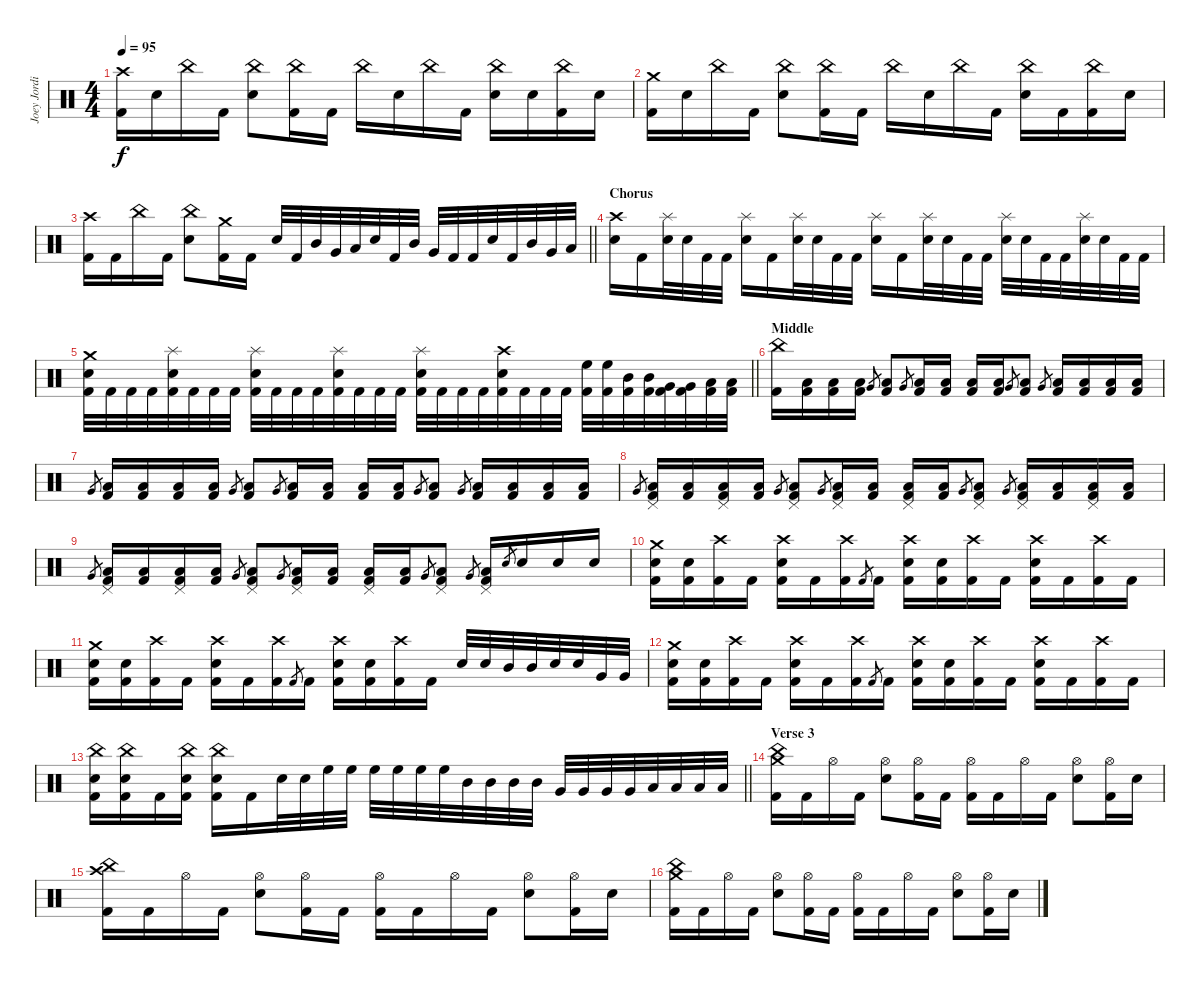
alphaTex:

\track ("Joey Jordison" "Joey Jordi") {instrument percussion}
\staff {score}
\articulation defaults
\ts (4 4)
\tempo 95
\clef neutral
\ks c
("Crash high (hit)" "Kick (hit) 2").16{dy f} "Electric Snare (hit)".16 "China (hit)".16 "Kick (hit) 2".16 ("China (hit)" "Electric Snare (hit)").8 ("China (hit)" "Kick (hit) 2").16 "Kick (hit) 2".16 "China (hit)".16 "Electric Snare (hit)".16 "China (hit)".16 "Kick (hit) 2".16 ("China (hit)" "Electric Snare (hit)").16 "Electric Snare (hit)".16 ("China (hit)" "Kick (hit) 2").16 "Electric Snare (hit)".16 |
("Crash medium (hit)" "Kick (hit) 2").16 "Electric Snare (hit)".16 "China (hit)".16 "Kick (hit) 2".16 ("China (hit)" "Electric Snare (hit)").8 ("China (hit)" "Kick (hit) 2").16 "Kick (hit) 2".16 "China (hit)".16 "Electric Snare (hit)".16 "China (hit)".16 "Kick (hit) 2".16 ("China (hit)" "Electric Snare (hit)").16 "Kick (hit) 2".16 ("China (hit)" "Kick (hit) 2").16 "Electric Snare (hit)".16 |
\barLineRight lightlight
("Crash high (hit)" "Kick (hit) 2").16 "Kick (hit) 2".16 "China (hit)".16 "Kick (hit) 2".16 ("China (hit)" "Electric Snare (hit)").8 ("Crash medium (hit)" "Kick (hit) 2").16 "Kick (hit) 2".16 "Electric Snare (hit)".32 "Kick (hit) 2".32 "Mid Tom (hit)".32 "Very Low Tom (hit)".32 "Low Floor Tom (hit)".32 "Electric Snare (hit)".32 "Kick (hit) 2".32 "Mid Tom (hit)".32 "Very Low Tom (hit)".32 "Kick (hit) 2".32 "Kick (hit) 2".32 "Electric Snare (hit)".32 "Kick (hit) 2".32 "Mid Tom (hit)".32 "Very Low Tom (hit)".32 "Low Floor Tom (hit)".32 |
\section ("" "Chorus")
("Crash high (hit)" "Electric Snare (hit)").16 "Kick (hit) 2".16 ("Splash (hit)" "Electric Snare (hit)").32 "Electric Snare (hit)".32 "Kick (hit) 2".32 "Kick (hit) 2".32 ("Splash (hit)" "Electric Snare (hit)").16 "Kick (hit) 2".16 ("Splash (hit)" "Electric Snare (hit)").32 "Electric Snare (hit)".32 "Kick (hit) 2".32 "Kick (hit) 2".32 ("Splash (hit)" "Electric Snare (hit)").16 "Kick (hit) 2".16 ("Splash (hit)" "Electric Snare (hit)").32 "Electric Snare (hit)".32 "Kick (hit) 2".32 "Kick (hit) 2".32 ("Splash (hit)" "Electric Snare (hit)").32 "Electric Snare (hit)".32 "Kick (hit) 2".32 "Kick (hit) 2".32 ("Splash (hit)" "Electric Snare (hit)").32 "Electric Snare (hit)".32 "Kick (hit) 2".32 "Kick (hit) 2".32 |
\barLineRight lightlight
("Crash medium (hit)" "Electric Snare (hit)" "Kick (hit) 2").32 "Kick (hit) 2".32 "Kick (hit) 2".32 "Kick (hit) 2".32 ("Splash (hit)" "Electric Snare (hit)" "Kick (hit) 2").32 "Kick (hit) 2".32 "Kick (hit) 2".32 "Kick (hit) 2".32 ("Splash (hit)" "Electric Snare (hit)" "Kick (hit) 2").32 "Kick (hit) 2".32 "Kick (hit) 2".32 "Kick (hit) 2".32 ("Splash (hit)" "Electric Snare (hit)" "Kick (hit) 2").32 "Kick (hit) 2".32 "Kick (hit) 2".32 "Kick (hit) 2".32 ("Splash (hit)" "Electric Snare (hit)" "Kick (hit) 2").32 "Kick (hit) 2".32 "Kick (hit) 2".32 "Kick (hit) 2".32 ("Crash high (hit)" "Electric Snare (hit)" "Kick (hit) 2").32 "Kick (hit) 2".32 "Kick (hit) 2".32 "Kick (hit) 2".32 ("High Floor Tom (hit)" "Kick (hit) 2").32 ("High Floor Tom (hit)" "Kick (hit) 2").32 ("Mid Tom (hit)" "Kick (hit) 2").32 ("Mid Tom (hit)" "Kick (hit) 2").32 ("Very Low Tom (hit)" "Kick (hit) 2").32 ("Very Low Tom (hit)" "Kick (hit) 2").32 ("Low Floor Tom (hit)" "Kick (hit) 2").32 ("Low Floor Tom (hit)" "Kick (hit) 2").32 |
\section ("" "Middle")
("China (hit)" "Kick (hit) 2").16 ("Low Floor Tom (hit)" "Kick (hit) 2").16 ("Low Floor Tom (hit)" "Kick (hit) 2").16 ("Low Floor Tom (hit)" "Kick (hit) 2").16 "Very Low Tom (hit)".8{gr} ("Low Floor Tom (hit)" "Kick (hit) 2").8 "Very Low Tom (hit)".8{gr} ("Low Floor Tom (hit)" "Kick (hit) 2").16 ("Low Floor Tom (hit)" "Kick (hit) 2").16 ("Low Floor Tom (hit)" "Kick (hit) 2").16 ("Low Floor Tom (hit)" "Kick (hit) 2").16 "Very Low Tom (hit)".8{gr} ("Low Floor Tom (hit)" "Kick (hit) 2").8 "Very Low Tom (hit)".8{gr} ("Low Floor Tom (hit)" "Kick (hit) 2").16 ("Low Floor Tom (hit)" "Kick (hit) 2").16 ("Low Floor Tom (hit)" "Kick (hit) 2").16 ("Low Floor Tom (hit)" "Kick (hit) 2").16 |
"Very Low Tom (hit)".8{gr} ("Low Floor Tom (hit)" "Kick (hit) 2").16 ("Low Floor Tom (hit)" "Kick (hit) 2").16 ("Low Floor Tom (hit)" "Kick (hit) 2").16 ("Low Floor Tom (hit)" "Kick (hit) 2").16 "Very Low Tom (hit)".8{gr} ("Low Floor Tom (hit)" "Kick (hit) 2").8 "Very Low Tom (hit)".8{gr} ("Low Floor Tom (hit)" "Kick (hit) 2").16 ("Low Floor Tom (hit)" "Kick (hit) 2").16 ("Low Floor Tom (hit)" "Kick (hit) 2").16 ("Low Floor Tom (hit)" "Kick (hit) 2").16 "Very Low Tom (hit)".8{gr} ("Low Floor Tom (hit)" "Kick (hit) 2").8 "Very Low Tom (hit)".8{gr} ("Low Floor Tom (hit)" "Kick (hit) 2").16 ("Low Floor Tom (hit)" "Kick (hit) 2").16 ("Low Floor Tom (hit)" "Kick (hit) 2").16 ("Low Floor Tom (hit)" "Kick (hit) 2").16 |
"Very Low Tom (hit)".8{gr} ("Pedal Hi-Hat (hit)" "Low Floor Tom (hit)" "Kick (hit) 2").16 ("Low Floor Tom (hit)" "Kick (hit) 2").16 ("Pedal Hi-Hat (hit)" "Low Floor Tom (hit)" "Kick (hit) 2").16 ("Low Floor Tom (hit)" "Kick (hit) 2").16 "Very Low Tom (hit)".8{gr} ("Pedal Hi-Hat (hit)" "Low Floor Tom (hit)" "Kick (hit) 2").8 "Very Low Tom (hit)".8{gr} ("Pedal Hi-Hat (hit)" "Low Floor Tom (hit)" "Kick (hit) 2").16 ("Low Floor Tom (hit)" "Kick (hit) 2").16 ("Pedal Hi-Hat (hit)" "Low Floor Tom (hit)" "Kick (hit) 2").16 ("Low Floor Tom (hit)" "Kick (hit) 2").16 "Very Low Tom (hit)".8{gr} ("Pedal Hi-Hat (hit)" "Low Floor Tom (hit)" "Kick (hit) 2").8 "Very Low Tom (hit)".8{gr} ("Pedal Hi-Hat (hit)" "Low Floor Tom (hit)" "Kick (hit) 2").16 ("Low Floor Tom (hit)" "Kick (hit) 2").16 ("Pedal Hi-Hat (hit)" "Low Floor Tom (hit)" "Kick (hit) 2").16 ("Low Floor Tom (hit)" "Kick (hit) 2").16 |
"Very Low Tom (hit)".8{gr} ("Pedal Hi-Hat (hit)" "Low Floor Tom (hit)" "Kick (hit) 2").16 ("Low Floor Tom (hit)" "Kick (hit) 2").16 ("Pedal Hi-Hat (hit)" "Low Floor Tom (hit)" "Kick (hit) 2").16 ("Low Floor Tom (hit)" "Kick (hit) 2").16 "Very Low Tom (hit)".8{gr} ("Pedal Hi-Hat (hit)" "Low Floor Tom (hit)" "Kick (hit) 2").8 "Very Low Tom (hit)".8{gr} ("Pedal Hi-Hat (hit)" "Low Floor Tom (hit)" "Kick (hit) 2").16 ("Low Floor Tom (hit)" "Kick (hit) 2").16 ("Pedal Hi-Hat (hit)" "Low Floor Tom (hit)" "Kick (hit) 2").16 ("Low Floor Tom (hit)" "Kick (hit) 2").16 "Very Low Tom (hit)".8{gr} ("Pedal Hi-Hat (hit)" "Low Floor Tom (hit)" "Kick (hit) 2").8 "Very Low Tom (hit)".8{gr} ("Pedal Hi-Hat (hit)" "Low Floor Tom (hit)" "Kick (hit) 2").16 "Electric Snare (hit)".8{gr} "Electric Snare (hit)".16 "Electric Snare (hit)".16 "Electric Snare (hit)".16 |
("Crash medium (hit)" "Electric Snare (hit)" "Kick (hit) 2").16 ("Electric Snare (hit)" "Kick (hit) 2").16 ("Crash high (hit)" "Kick (hit) 2").16 "Kick (hit) 2".16 ("Crash high (hit)" "Electric Snare (hit)" "Kick (hit) 2").16 "Kick (hit) 2".16 ("Crash high (hit)" "Kick (hit) 2").16 "Kick (hit) 2".8{gr} "Kick (hit) 2".16 ("Crash high (hit)" "Electric Snare (hit)" "Kick (hit) 2").16 ("Electric Snare (hit)" "Kick (hit) 2").16 ("Crash high (hit)" "Kick (hit) 2").16 "Kick (hit) 2".16 ("Crash high (hit)" "Electric Snare (hit)" "Kick (hit) 2").16 "Kick (hit) 2".16 ("Crash high (hit)" "Kick (hit) 2").16 "Kick (hit) 2".16 |
("Crash medium (hit)" "Electric Snare (hit)" "Kick (hit) 2").16 ("Electric Snare (hit)" "Kick (hit) 2").16 ("Crash high (hit)" "Kick (hit) 2").16 "Kick (hit) 2".16 ("Crash high (hit)" "Electric Snare (hit)" "Kick (hit) 2").16 "Kick (hit) 2".16 ("Crash high (hit)" "Kick (hit) 2").16 "Kick (hit) 2".8{gr} "Kick (hit) 2".16 ("Crash high (hit)" "Electric Snare (hit)" "Kick (hit) 2").16 ("Electric Snare (hit)" "Kick (hit) 2").16 ("Crash high (hit)" "Kick (hit) 2").16 "Kick (hit) 2".16 "Electric Snare (hit)".32 "Electric Snare (hit)".32 "Mid Tom (hit)".32 "Mid Tom (hit)".32 "Electric Snare (hit)".32 "Electric Snare (hit)".32 "Very Low Tom (hit)".32 "Very Low Tom (hit)".32 |
("Crash medium (hit)" "Electric Snare (hit)" "Kick (hit) 2").16 ("Electric Snare (hit)" "Kick (hit) 2").16 ("Crash high (hit)" "Kick (hit) 2").16 "Kick (hit) 2".16 ("Crash high (hit)" "Electric Snare (hit)" "Kick (hit) 2").16 "Kick (hit) 2".16 ("Crash high (hit)" "Kick (hit) 2").16 "Kick (hit) 2".8{gr} "Kick (hit) 2".16 ("Crash high (hit)" "Electric Snare (hit)" "Kick (hit) 2").16 ("Electric Snare (hit)" "Kick (hit) 2").16 ("Crash high (hit)" "Kick (hit) 2").16 "Kick (hit) 2".16 ("Crash high (hit)" "Electric Snare (hit)" "Kick (hit) 2").16 "Kick (hit) 2".16 ("Crash high (hit)" "Kick (hit) 2").16 "Kick (hit) 2".16 |
\barLineRight lightlight
("China (hit)" "Electric Snare (hit)" "Kick (hit) 2").16 ("China (hit)" "Electric Snare (hit)" "Kick (hit) 2").16 "Kick (hit) 2".16 ("China (hit)" "Electric Snare (hit)" "Kick (hit) 2").16 ("China (hit)" "Electric Snare (hit)" "Kick (hit) 2").16 "Kick (hit) 2".16 "Electric Snare (hit)".32 "Electric Snare (hit)".32 "High Floor Tom (hit)".32 "High Floor Tom (hit)".32 "High Floor Tom (hit)".32 "High Floor Tom (hit)".32 "High Floor Tom (hit)".32 "High Floor Tom (hit)".32 "Mid Tom (hit)".32 "Mid Tom (hit)".32 "Mid Tom (hit)".32 "Mid Tom (hit)".32 "Very Low Tom (hit)".32 "Very Low Tom (hit)".32 "Very Low Tom (hit)".32 "Very Low Tom (hit)".32 "Low Floor Tom (hit)".32 "Low Floor Tom (hit)".32 "Low Floor Tom (hit)".32 "Low Floor Tom (hit)".32 |
\section ("" "Verse 3")
("China (hit)" "Crash medium (hit)" "Kick (hit) 2").16 "Kick (hit) 2".16 "Hi-Hat (open)".16 "Kick (hit) 2".16 ("Hi-Hat (open)" "Electric Snare (hit)").8 ("Hi-Hat (open)" "Kick (hit) 2").16 "Kick (hit) 2".16 ("Hi-Hat (open)" "Kick (hit) 2").16 "Kick (hit) 2".16 "Hi-Hat (open)".16 "Kick (hit) 2".16 ("Hi-Hat (open)" "Electric Snare (hit)").8 ("Hi-Hat (open)" "Kick (hit) 2").16 "Electric Snare (hit)".16 |
("China (hit)" "Crash high (hit)" "Kick (hit) 2").16 "Kick (hit) 2".16 "Hi-Hat (open)".16 "Kick (hit) 2".16 ("Hi-Hat (open)" "Electric Snare (hit)").8 ("Hi-Hat (open)" "Kick (hit) 2").16 "Kick (hit) 2".16 ("Hi-Hat (open)" "Kick (hit) 2").16 "Kick (hit) 2".16 "Hi-Hat (open)".16 "Kick (hit) 2".16 ("Hi-Hat (open)" "Electric Snare (hit)").8 ("Hi-Hat (open)" "Kick (hit) 2").16 "Electric Snare (hit)".16 |
("China (hit)" "Crash medium (hit)" "Kick (hit) 2").16 "Kick (hit) 2".16 "Hi-Hat (open)".16 "Kick (hit) 2".16 ("Hi-Hat (open)" "Electric Snare (hit)").8 ("Hi-Hat (open)" "Kick (hit) 2").16 "Kick (hit) 2".16 ("Hi-Hat (open)" "Kick (hit) 2").16 "Kick (hit) 2".16 "Hi-Hat (open)".16 "Kick (hit) 2".16 ("Hi-Hat (open)" "Electric Snare (hit)").8 ("Hi-Hat (open)" "Kick (hit) 2").16 "Electric Snare (hit)".16
